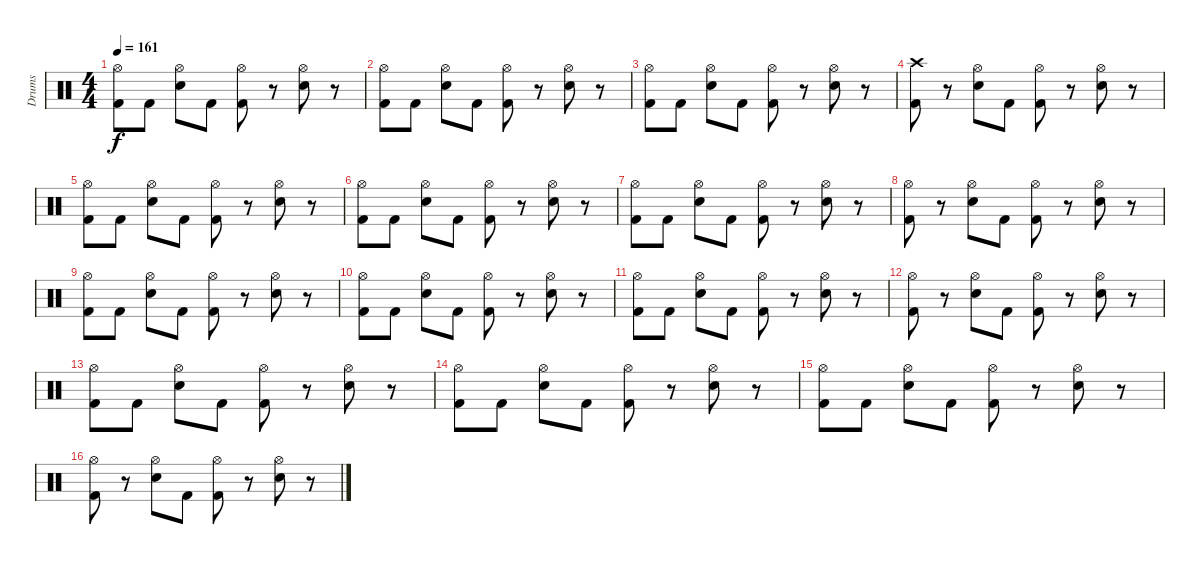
\track ("Drums" "Drums") {instrument percussion}
\staff {score}
\articulation defaults
\ts (4 4)
\tempo 161
\clef neutral
\ks c
("Hi-Hat (open)" "Kick (hit) 2").8{dy f} "Kick (hit) 2".8 ("Hi-Hat (open)" "Snare (hit) 2").8 "Kick (hit) 2".8 ("Hi-Hat (open)" "Kick (hit) 2").8 r.8 ("Hi-Hat (open)" "Snare (hit) 2").8 r.8 |
("Hi-Hat (open)" "Kick (hit) 2").8 "Kick (hit) 2".8 ("Hi-Hat (open)" "Snare (hit) 2").8 "Kick (hit) 2".8 ("Hi-Hat (open)" "Kick (hit) 2").8 r.8 ("Hi-Hat (open)" "Snare (hit) 2").8 r.8 |
("Hi-Hat (open)" "Kick (hit) 2").8 "Kick (hit) 2".8 ("Hi-Hat (open)" "Snare (hit) 2").8 "Kick (hit) 2".8 ("Hi-Hat (open)" "Kick (hit) 2").8 r.8 ("Hi-Hat (open)" "Snare (hit) 2").8 r.8 |
("Crash high (hit)" "Kick (hit) 2").8 r.8 ("Hi-Hat (open)" "Snare (hit) 2").8 "Kick (hit) 2".8 ("Hi-Hat (open)" "Kick (hit) 2").8 r.8 ("Hi-Hat (open)" "Snare (hit) 2").8 r.8 |
("Hi-Hat (open)" "Kick (hit) 2").8 "Kick (hit) 2".8 ("Hi-Hat (open)" "Snare (hit) 2").8 "Kick (hit) 2".8 ("Hi-Hat (open)" "Kick (hit) 2").8 r.8 ("Hi-Hat (open)" "Snare (hit) 2").8 r.8 |
("Hi-Hat (open)" "Kick (hit) 2").8 "Kick (hit) 2".8 ("Hi-Hat (open)" "Snare (hit) 2").8 "Kick (hit) 2".8 ("Hi-Hat (open)" "Kick (hit) 2").8 r.8 ("Hi-Hat (open)" "Snare (hit) 2").8 r.8 |
("Hi-Hat (open)" "Kick (hit) 2").8 "Kick (hit) 2".8 ("Hi-Hat (open)" "Snare (hit) 2").8 "Kick (hit) 2".8 ("Hi-Hat (open)" "Kick (hit) 2").8 r.8 ("Hi-Hat (open)" "Snare (hit) 2").8 r.8 |
("Hi-Hat (open)" "Kick (hit) 2").8 r.8 ("Hi-Hat (open)" "Snare (hit) 2").8 "Kick (hit) 2".8 ("Hi-Hat (open)" "Kick (hit) 2").8 r.8 ("Hi-Hat (open)" "Snare (hit) 2").8 r.8 |
("Hi-Hat (open)" "Kick (hit) 2").8 "Kick (hit) 2".8 ("Hi-Hat (open)" "Snare (hit) 2").8 "Kick (hit) 2".8 ("Hi-Hat (open)" "Kick (hit) 2").8 r.8 ("Hi-Hat (open)" "Snare (hit) 2").8 r.8 |
("Hi-Hat (open)" "Kick (hit) 2").8 "Kick (hit) 2".8 ("Hi-Hat (open)" "Snare (hit) 2").8 "Kick (hit) 2".8 ("Hi-Hat (open)" "Kick (hit) 2").8 r.8 ("Hi-Hat (open)" "Snare (hit) 2").8 r.8 |
("Hi-Hat (open)" "Kick (hit) 2").8 "Kick (hit) 2".8 ("Hi-Hat (open)" "Snare (hit) 2").8 "Kick (hit) 2".8 ("Hi-Hat (open)" "Kick (hit) 2").8 r.8 ("Hi-Hat (open)" "Snare (hit) 2").8 r.8 |
("Hi-Hat (open)" "Kick (hit) 2").8 r.8 ("Hi-Hat (open)" "Snare (hit) 2").8 "Kick (hit) 2".8 ("Hi-Hat (open)" "Kick (hit) 2").8 r.8 ("Hi-Hat (open)" "Snare (hit) 2").8 r.8 |
("Hi-Hat (open)" "Kick (hit) 2").8 "Kick (hit) 2".8 ("Hi-Hat (open)" "Snare (hit) 2").8 "Kick (hit) 2".8 ("Hi-Hat (open)" "Kick (hit) 2").8 r.8 ("Hi-Hat (open)" "Snare (hit) 2").8 r.8 |
("Hi-Hat (open)" "Kick (hit) 2").8 "Kick (hit) 2".8 ("Hi-Hat (open)" "Snare (hit) 2").8 "Kick (hit) 2".8 ("Hi-Hat (open)" "Kick (hit) 2").8 r.8 ("Hi-Hat (open)" "Snare (hit) 2").8 r.8 |
("Hi-Hat (open)" "Kick (hit) 2").8 "Kick (hit) 2".8 ("Hi-Hat (open)" "Snare (hit) 2").8 "Kick (hit) 2".8 ("Hi-Hat (open)" "Kick (hit) 2").8 r.8 ("Hi-Hat (open)" "Snare (hit) 2").8 r.8 |
("Hi-Hat (open)" "Kick (hit) 2").8 r.8 ("Hi-Hat (open)" "Snare (hit) 2").8 "Kick (hit) 2".8 ("Hi-Hat (open)" "Kick (hit) 2").8 r.8 ("Hi-Hat (open)" "Snare (hit) 2").8 r.8
